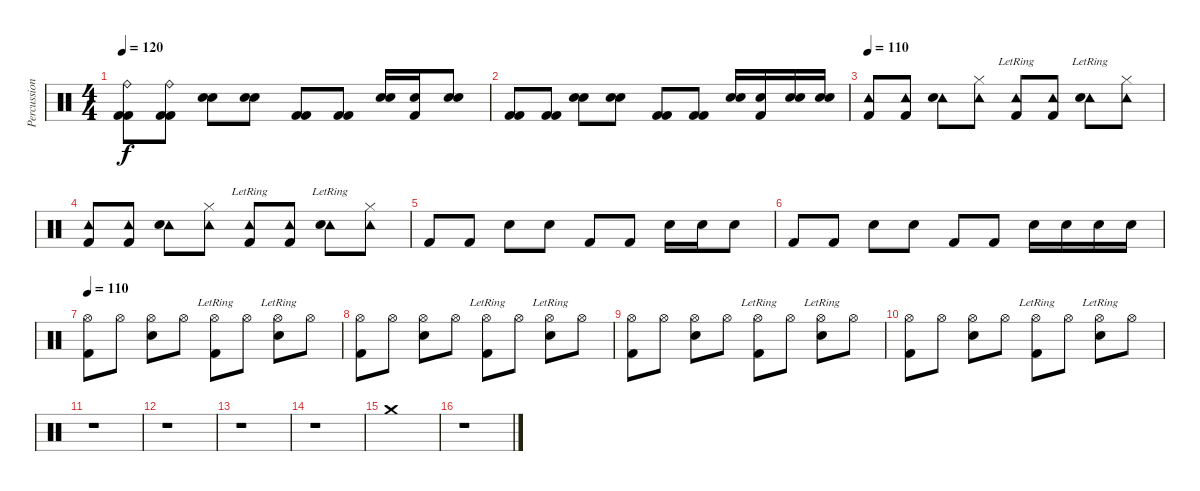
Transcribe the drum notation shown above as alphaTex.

\track ("Percussion" "Percussion") {instrument percussion}
\staff {score}
\articulation defaults
\ts (4 4)
\tempo 120
\clef neutral
\ks c
("Ride (bell)" "Kick (hit) 2" "Kick (hit) 2").8{dy f} ("Ride (bell)" "Kick (hit) 2" "Kick (hit) 2").8 ("Electric Snare (hit)" "Electric Snare (hit)").8 ("Electric Snare (hit)" "Electric Snare (hit)").8 ("Kick (hit) 2" "Kick (hit) 2").8 ("Kick (hit) 2" "Kick (hit) 2").8 ("Electric Snare (hit)" "Electric Snare (hit)").16 ("Electric Snare (hit)" "Kick (hit) 2").16 ("Electric Snare (hit)" "Electric Snare (hit)").8 |
("Kick (hit) 2" "Kick (hit) 2").8 ("Kick (hit) 2" "Kick (hit) 2").8 ("Electric Snare (hit)" "Electric Snare (hit)").8 ("Electric Snare (hit)" "Electric Snare (hit)").8 ("Kick (hit) 2" "Kick (hit) 2").8 ("Kick (hit) 2" "Kick (hit) 2").8 ("Electric Snare (hit)" "Electric Snare (hit)").16 ("Electric Snare (hit)" "Kick (hit) 2").16 ("Electric Snare (hit)" "Electric Snare (hit)").16 ("Electric Snare (hit)" "Electric Snare (hit)").16 |
\tempo 110
("Tambourine (hit)" "Kick (hit) 2").8 ("Tambourine (hit)" "Kick (hit) 2").8 ("Tambourine (hit)" "Electric Snare (hit)").8 ("Tambourine (hit)" "Hi-Hat (closed)").8 ("Tambourine (hit)"{lr} "Kick (hit) 2").8 ("Tambourine (hit)" "Kick (hit) 2").8 ("Tambourine (hit)"{lr} "Electric Snare (hit)").8 ("Tambourine (hit)" "Hi-Hat (closed)").8 |
("Tambourine (hit)" "Kick (hit) 2").8 ("Tambourine (hit)" "Kick (hit) 2").8 ("Tambourine (hit)" "Electric Snare (hit)").8 ("Tambourine (hit)" "Hi-Hat (closed)").8 ("Tambourine (hit)"{lr} "Kick (hit) 2").8 ("Tambourine (hit)" "Kick (hit) 2").8 ("Tambourine (hit)"{lr} "Electric Snare (hit)").8 ("Tambourine (hit)" "Hi-Hat (closed)").8 |
"Kick (hit) 2".8{volume 11} "Kick (hit) 2".8 "Electric Snare (hit)".8 "Electric Snare (hit)".8 "Kick (hit) 2".8{volume 9} "Kick (hit) 2".8 "Electric Snare (hit)".16 "Electric Snare (hit)".16 "Electric Snare (hit)".8 |
"Kick (hit) 2".8{volume 8} "Kick (hit) 2".8 "Electric Snare (hit)".8 "Electric Snare (hit)".8 "Kick (hit) 2".8{volume 6} "Kick (hit) 2".8 "Electric Snare (hit)".16 "Electric Snare (hit)".16 "Electric Snare (hit)".16 "Electric Snare (hit)".16 |
\tempo 110
("Hi-Hat (open)" "Kick (hit) 2").8{volume 4} "Hi-Hat (open)".8 ("Hi-Hat (open)" "Electric Snare (hit)").8 "Hi-Hat (open)".8 ("Hi-Hat (open)"{lr} "Kick (hit) 2").8 "Hi-Hat (open)".8 ("Hi-Hat (open)"{lr} "Electric Snare (hit)").8 "Hi-Hat (open)".8 |
("Hi-Hat (open)" "Kick (hit) 2").8{volume 4} "Hi-Hat (open)".8 ("Hi-Hat (open)" "Electric Snare (hit)").8 "Hi-Hat (open)".8 ("Hi-Hat (open)"{lr} "Kick (hit) 2").8 "Hi-Hat (open)".8 ("Hi-Hat (open)"{lr} "Electric Snare (hit)").8 "Hi-Hat (open)".8 |
("Hi-Hat (open)" "Kick (hit) 2").8{volume 2} "Hi-Hat (open)".8 ("Hi-Hat (open)" "Electric Snare (hit)").8 "Hi-Hat (open)".8 ("Hi-Hat (open)"{lr} "Kick (hit) 2").8 "Hi-Hat (open)".8 ("Hi-Hat (open)"{lr} "Electric Snare (hit)").8 "Hi-Hat (open)".8 |
("Hi-Hat (open)" "Kick (hit) 2").8{volume 0} "Hi-Hat (open)".8 ("Hi-Hat (open)" "Electric Snare (hit)").8 "Hi-Hat (open)".8 ("Hi-Hat (open)"{lr} "Kick (hit) 2").8 "Hi-Hat (open)".8 ("Hi-Hat (open)"{lr} "Electric Snare (hit)").8 "Hi-Hat (open)".8 |
r.1 |
r.1 |
r.1 |
r.1 |
"Crash medium (hit)".1{volume 13} |
r.1
